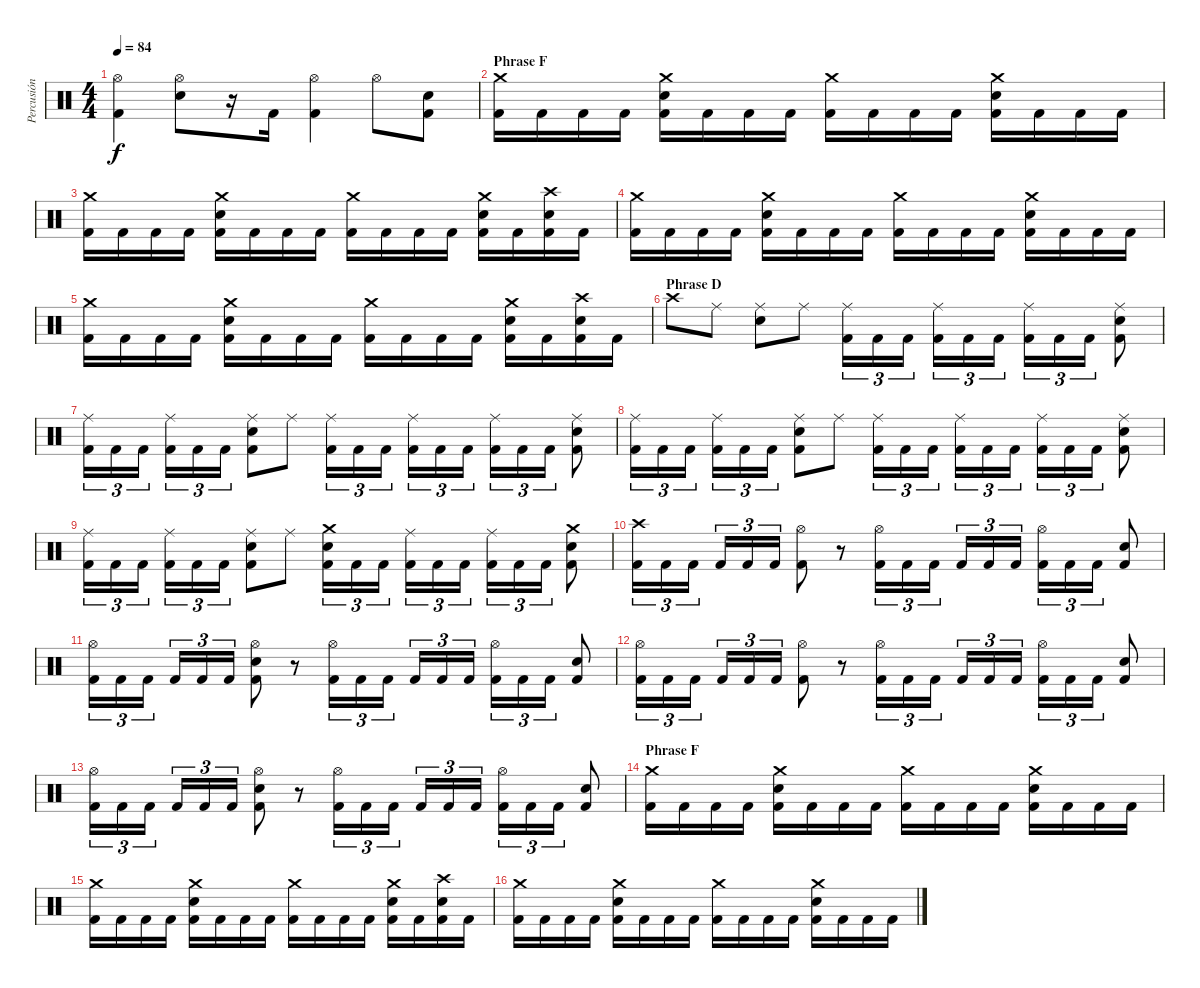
\track ("Percusión" "Percusión") {instrument percussion}
\staff {score}
\articulation defaults
\ts (4 4)
\tempo 84
\clef neutral
\ks c
("Hi-Hat (open)" "Kick (hit) 2").4{dy f} ("Hi-Hat (open)" "Electric Snare (hit)").8 r.16 "Kick (hit) 2".16 ("Hi-Hat (open)" "Kick (hit) 2").4 "Hi-Hat (open)".8 ("Electric Snare (hit)" "Kick (hit) 2").8 |
\section ("" "Phrase F")
("Crash medium (hit)" "Kick (hit) 2").16 "Kick (hit) 2".16 "Kick (hit) 2".16 "Kick (hit) 2".16 ("Crash medium (hit)" "Electric Snare (hit)" "Kick (hit) 2").16 "Kick (hit) 2".16 "Kick (hit) 2".16 "Kick (hit) 2".16 ("Crash medium (hit)" "Kick (hit) 2").16 "Kick (hit) 2".16 "Kick (hit) 2".16 "Kick (hit) 2".16 ("Crash medium (hit)" "Electric Snare (hit)" "Kick (hit) 2").16 "Kick (hit) 2".16 "Kick (hit) 2".16 "Kick (hit) 2".16 |
("Crash medium (hit)" "Kick (hit) 2").16 "Kick (hit) 2".16 "Kick (hit) 2".16 "Kick (hit) 2".16 ("Crash medium (hit)" "Electric Snare (hit)" "Kick (hit) 2").16 "Kick (hit) 2".16 "Kick (hit) 2".16 "Kick (hit) 2".16 ("Crash medium (hit)" "Kick (hit) 2").16 "Kick (hit) 2".16 "Kick (hit) 2".16 "Kick (hit) 2".16 ("Crash medium (hit)" "Electric Snare (hit)" "Kick (hit) 2").16 "Kick (hit) 2".16 ("Crash high (hit)" "Electric Snare (hit)" "Kick (hit) 2").16 "Kick (hit) 2".16 |
("Crash medium (hit)" "Kick (hit) 2").16 "Kick (hit) 2".16 "Kick (hit) 2".16 "Kick (hit) 2".16 ("Crash medium (hit)" "Electric Snare (hit)" "Kick (hit) 2").16 "Kick (hit) 2".16 "Kick (hit) 2".16 "Kick (hit) 2".16 ("Crash medium (hit)" "Kick (hit) 2").16 "Kick (hit) 2".16 "Kick (hit) 2".16 "Kick (hit) 2".16 ("Crash medium (hit)" "Electric Snare (hit)" "Kick (hit) 2").16 "Kick (hit) 2".16 "Kick (hit) 2".16 "Kick (hit) 2".16 |
("Crash medium (hit)" "Kick (hit) 2").16 "Kick (hit) 2".16 "Kick (hit) 2".16 "Kick (hit) 2".16 ("Crash medium (hit)" "Electric Snare (hit)" "Kick (hit) 2").16 "Kick (hit) 2".16 "Kick (hit) 2".16 "Kick (hit) 2".16 ("Crash medium (hit)" "Kick (hit) 2").16 "Kick (hit) 2".16 "Kick (hit) 2".16 "Kick (hit) 2".16 ("Crash medium (hit)" "Electric Snare (hit)" "Kick (hit) 2").16 "Kick (hit) 2".16 ("Crash high (hit)" "Electric Snare (hit)" "Kick (hit) 2").16 "Kick (hit) 2".16 |
\section ("" "Phrase D")
"Crash high (hit)".8 "Ride (middle)".8 ("Ride (middle)" "Electric Snare (hit)").8 "Ride (middle)".8 ("Ride (middle)" "Kick (hit) 2").16{tu (3 2)} "Kick (hit) 2".16{tu (3 2)} "Kick (hit) 2".16{tu (3 2)} ("Ride (middle)" "Kick (hit) 2").16{tu (3 2)} "Kick (hit) 2".16{tu (3 2)} "Kick (hit) 2".16{tu (3 2)} ("Ride (middle)" "Kick (hit) 2").16{tu (3 2)} "Kick (hit) 2".16{tu (3 2)} "Kick (hit) 2".16{tu (3 2)} ("Ride (middle)" "Electric Snare (hit)" "Kick (hit) 2").8 |
("Ride (middle)" "Kick (hit) 2").16{tu (3 2)} "Kick (hit) 2".16{tu (3 2)} "Kick (hit) 2".16{tu (3 2)} ("Ride (middle)" "Kick (hit) 2").16{tu (3 2)} "Kick (hit) 2".16{tu (3 2)} "Kick (hit) 2".16{tu (3 2)} ("Ride (middle)" "Electric Snare (hit)" "Kick (hit) 2").8 "Ride (middle)".8 ("Ride (middle)" "Kick (hit) 2").16{tu (3 2)} "Kick (hit) 2".16{tu (3 2)} "Kick (hit) 2".16{tu (3 2)} ("Ride (middle)" "Kick (hit) 2").16{tu (3 2)} "Kick (hit) 2".16{tu (3 2)} "Kick (hit) 2".16{tu (3 2)} ("Ride (middle)" "Kick (hit) 2").16{tu (3 2)} "Kick (hit) 2".16{tu (3 2)} "Kick (hit) 2".16{tu (3 2)} ("Ride (middle)" "Electric Snare (hit)" "Kick (hit) 2").8 |
("Ride (middle)" "Kick (hit) 2").16{tu (3 2)} "Kick (hit) 2".16{tu (3 2)} "Kick (hit) 2".16{tu (3 2)} ("Ride (middle)" "Kick (hit) 2").16{tu (3 2)} "Kick (hit) 2".16{tu (3 2)} "Kick (hit) 2".16{tu (3 2)} ("Ride (middle)" "Electric Snare (hit)" "Kick (hit) 2").8 "Ride (middle)".8 ("Ride (middle)" "Kick (hit) 2").16{tu (3 2)} "Kick (hit) 2".16{tu (3 2)} "Kick (hit) 2".16{tu (3 2)} ("Ride (middle)" "Kick (hit) 2").16{tu (3 2)} "Kick (hit) 2".16{tu (3 2)} "Kick (hit) 2".16{tu (3 2)} ("Ride (middle)" "Kick (hit) 2").16{tu (3 2)} "Kick (hit) 2".16{tu (3 2)} "Kick (hit) 2".16{tu (3 2)} ("Ride (middle)" "Electric Snare (hit)" "Kick (hit) 2").8 |
("Ride (middle)" "Kick (hit) 2").16{tu (3 2)} "Kick (hit) 2".16{tu (3 2)} "Kick (hit) 2".16{tu (3 2)} ("Ride (middle)" "Kick (hit) 2").16{tu (3 2)} "Kick (hit) 2".16{tu (3 2)} "Kick (hit) 2".16{tu (3 2)} ("Ride (middle)" "Electric Snare (hit)" "Kick (hit) 2").8 "Ride (middle)".8 ("Crash medium (hit)" "Electric Snare (hit)" "Kick (hit) 2").16{tu (3 2)} "Kick (hit) 2".16{tu (3 2)} "Kick (hit) 2".16{tu (3 2)} ("Ride (middle)" "Kick (hit) 2").16{tu (3 2)} "Kick (hit) 2".16{tu (3 2)} "Kick (hit) 2".16{tu (3 2)} ("Ride (middle)" "Kick (hit) 2").16{tu (3 2)} "Kick (hit) 2".16{tu (3 2)} "Kick (hit) 2".16{tu (3 2)} ("Crash medium (hit)" "Electric Snare (hit)" "Kick (hit) 2").8 |
("Crash high (hit)" "Kick (hit) 2").16{tu (3 2)} "Kick (hit) 2".16{tu (3 2)} "Kick (hit) 2".16{tu (3 2)} "Kick (hit) 2".16{tu (3 2)} "Kick (hit) 2".16{tu (3 2)} "Kick (hit) 2".16{tu (3 2)} ("Hi-Hat (open)" "Kick (hit) 2").8 r.8 ("Hi-Hat (open)" "Kick (hit) 2").16{tu (3 2)} "Kick (hit) 2".16{tu (3 2)} "Kick (hit) 2".16{tu (3 2)} "Kick (hit) 2".16{tu (3 2)} "Kick (hit) 2".16{tu (3 2)} "Kick (hit) 2".16{tu (3 2)} ("Hi-Hat (open)" "Kick (hit) 2").16{tu (3 2)} "Kick (hit) 2".16{tu (3 2)} "Kick (hit) 2".16{tu (3 2)} ("Electric Snare (hit)" "Kick (hit) 2").8 |
("Hi-Hat (open)" "Kick (hit) 2").16{tu (3 2)} "Kick (hit) 2".16{tu (3 2)} "Kick (hit) 2".16{tu (3 2)} "Kick (hit) 2".16{tu (3 2)} "Kick (hit) 2".16{tu (3 2)} "Kick (hit) 2".16{tu (3 2)} ("Hi-Hat (open)" "Electric Snare (hit)" "Kick (hit) 2").8 r.8 ("Hi-Hat (open)" "Kick (hit) 2").16{tu (3 2)} "Kick (hit) 2".16{tu (3 2)} "Kick (hit) 2".16{tu (3 2)} "Kick (hit) 2".16{tu (3 2)} "Kick (hit) 2".16{tu (3 2)} "Kick (hit) 2".16{tu (3 2)} ("Hi-Hat (open)" "Kick (hit) 2").16{tu (3 2)} "Kick (hit) 2".16{tu (3 2)} "Kick (hit) 2".16{tu (3 2)} ("Electric Snare (hit)" "Kick (hit) 2").8 |
("Hi-Hat (open)" "Kick (hit) 2").16{tu (3 2)} "Kick (hit) 2".16{tu (3 2)} "Kick (hit) 2".16{tu (3 2)} "Kick (hit) 2".16{tu (3 2)} "Kick (hit) 2".16{tu (3 2)} "Kick (hit) 2".16{tu (3 2)} ("Hi-Hat (open)" "Kick (hit) 2").8 r.8 ("Hi-Hat (open)" "Kick (hit) 2").16{tu (3 2)} "Kick (hit) 2".16{tu (3 2)} "Kick (hit) 2".16{tu (3 2)} "Kick (hit) 2".16{tu (3 2)} "Kick (hit) 2".16{tu (3 2)} "Kick (hit) 2".16{tu (3 2)} ("Hi-Hat (open)" "Kick (hit) 2").16{tu (3 2)} "Kick (hit) 2".16{tu (3 2)} "Kick (hit) 2".16{tu (3 2)} ("Electric Snare (hit)" "Kick (hit) 2").8 |
("Hi-Hat (open)" "Kick (hit) 2").16{tu (3 2)} "Kick (hit) 2".16{tu (3 2)} "Kick (hit) 2".16{tu (3 2)} "Kick (hit) 2".16{tu (3 2)} "Kick (hit) 2".16{tu (3 2)} "Kick (hit) 2".16{tu (3 2)} ("Hi-Hat (open)" "Electric Snare (hit)" "Kick (hit) 2").8 r.8 ("Hi-Hat (open)" "Kick (hit) 2").16{tu (3 2)} "Kick (hit) 2".16{tu (3 2)} "Kick (hit) 2".16{tu (3 2)} "Kick (hit) 2".16{tu (3 2)} "Kick (hit) 2".16{tu (3 2)} "Kick (hit) 2".16{tu (3 2)} ("Hi-Hat (open)" "Kick (hit) 2").16{tu (3 2)} "Kick (hit) 2".16{tu (3 2)} "Kick (hit) 2".16{tu (3 2)} ("Electric Snare (hit)" "Kick (hit) 2").8 |
\section ("" "Phrase F")
("Crash medium (hit)" "Kick (hit) 2").16 "Kick (hit) 2".16 "Kick (hit) 2".16 "Kick (hit) 2".16 ("Crash medium (hit)" "Electric Snare (hit)" "Kick (hit) 2").16 "Kick (hit) 2".16 "Kick (hit) 2".16 "Kick (hit) 2".16 ("Crash medium (hit)" "Kick (hit) 2").16 "Kick (hit) 2".16 "Kick (hit) 2".16 "Kick (hit) 2".16 ("Crash medium (hit)" "Electric Snare (hit)" "Kick (hit) 2").16 "Kick (hit) 2".16 "Kick (hit) 2".16 "Kick (hit) 2".16 |
("Crash medium (hit)" "Kick (hit) 2").16 "Kick (hit) 2".16 "Kick (hit) 2".16 "Kick (hit) 2".16 ("Crash medium (hit)" "Electric Snare (hit)" "Kick (hit) 2").16 "Kick (hit) 2".16 "Kick (hit) 2".16 "Kick (hit) 2".16 ("Crash medium (hit)" "Kick (hit) 2").16 "Kick (hit) 2".16 "Kick (hit) 2".16 "Kick (hit) 2".16 ("Crash medium (hit)" "Electric Snare (hit)" "Kick (hit) 2").16 "Kick (hit) 2".16 ("Crash high (hit)" "Electric Snare (hit)" "Kick (hit) 2").16 "Kick (hit) 2".16 |
("Crash medium (hit)" "Kick (hit) 2").16 "Kick (hit) 2".16 "Kick (hit) 2".16 "Kick (hit) 2".16 ("Crash medium (hit)" "Electric Snare (hit)" "Kick (hit) 2").16 "Kick (hit) 2".16 "Kick (hit) 2".16 "Kick (hit) 2".16 ("Crash medium (hit)" "Kick (hit) 2").16 "Kick (hit) 2".16 "Kick (hit) 2".16 "Kick (hit) 2".16 ("Crash medium (hit)" "Electric Snare (hit)" "Kick (hit) 2").16 "Kick (hit) 2".16 "Kick (hit) 2".16 "Kick (hit) 2".16
